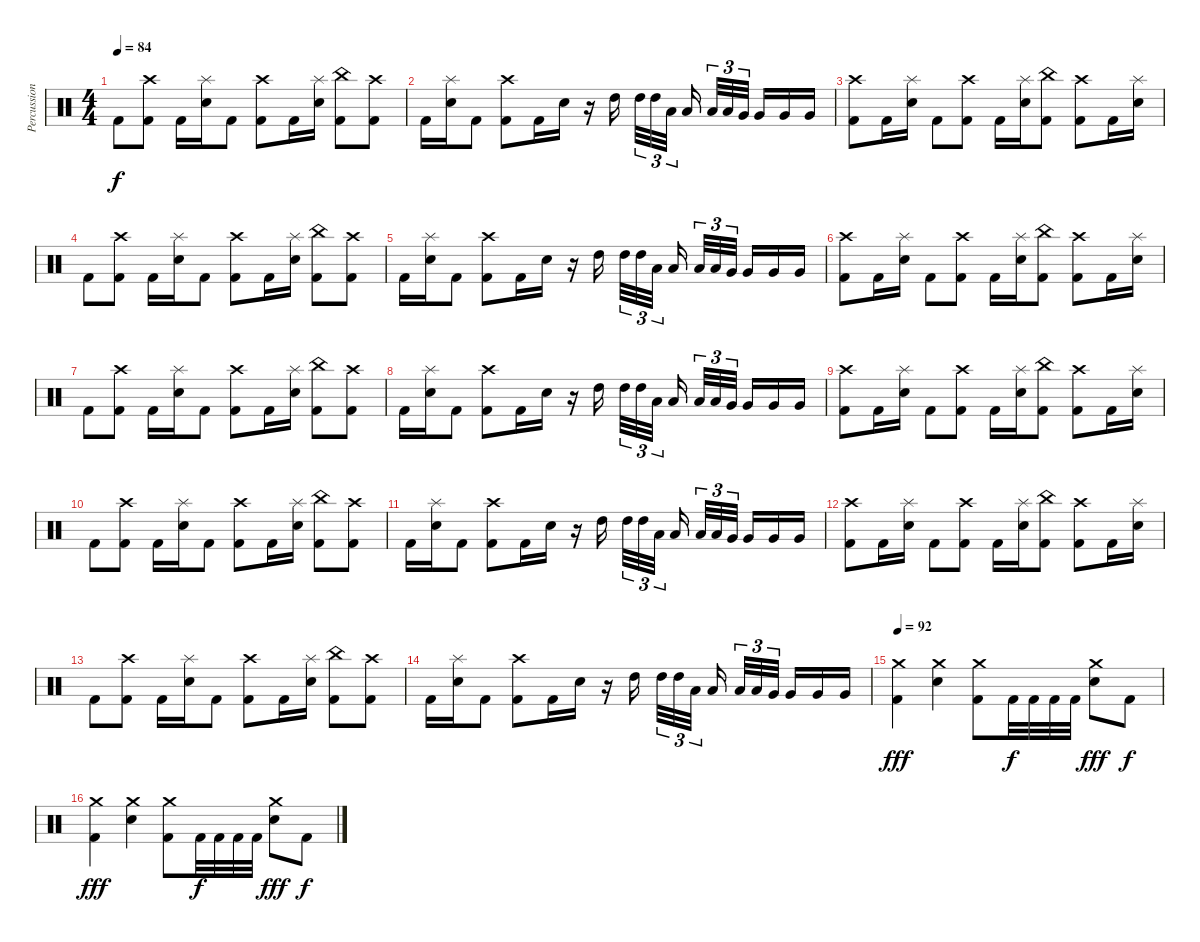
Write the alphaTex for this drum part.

\track ("Percussion" "Percussion") {instrument percussion}
\staff {score}
\articulation defaults
\ts (4 4)
\tempo 84
\clef neutral
\ks c "Kick (hit) 2".8{dy f}
("Crash high (hit)" "Kick (hit) 2").8 "Kick (hit) 2".16 ("Splash (hit)" "Electric Snare (hit)").16 "Kick (hit) 2".8 ("Crash high (hit)" "Kick (hit) 2").8 "Kick (hit) 2".16 ("Splash (hit)" "Electric Snare (hit)").16 ("China (hit)" "Kick (hit) 2").8 ("Crash high (hit)" "Kick (hit) 2").8 |
"Kick (hit) 2".16 ("Splash (hit)" "Electric Snare (hit)").16 "Kick (hit) 2".8 ("Crash high (hit)" "Kick (hit) 2").8 "Kick (hit) 2".16 "Electric Snare (hit)".16 r.16 "High Tom (hit)".16 "High Tom (hit)".32{tu (3 2)} "High Tom (hit)".32{tu (3 2)} "Low Tom (hit)".32{tu (3 2)} "Low Tom (hit)".16 "Low Tom (hit)".32{tu (3 2)} "Low Tom (hit)".32{tu (3 2)} "Very Low Tom (hit)".32{tu (3 2)} "Very Low Tom (hit)".16 "Very Low Tom (hit)".16 "Very Low Tom (hit)".16 |
("Crash high (hit)" "Kick (hit) 2").8 "Kick (hit) 2".16 ("Splash (hit)" "Electric Snare (hit)").16 "Kick (hit) 2".8 ("Crash high (hit)" "Kick (hit) 2").8 "Kick (hit) 2".16 ("Splash (hit)" "Electric Snare (hit)").16 ("China (hit)" "Kick (hit) 2").8 ("Crash high (hit)" "Kick (hit) 2").8 "Kick (hit) 2".16 ("Splash (hit)" "Electric Snare (hit)").16 |
"Kick (hit) 2".8 ("Crash high (hit)" "Kick (hit) 2").8 "Kick (hit) 2".16 ("Splash (hit)" "Electric Snare (hit)").16 "Kick (hit) 2".8 ("Crash high (hit)" "Kick (hit) 2").8 "Kick (hit) 2".16 ("Splash (hit)" "Electric Snare (hit)").16 ("China (hit)" "Kick (hit) 2").8 ("Crash high (hit)" "Kick (hit) 2").8 |
"Kick (hit) 2".16 ("Splash (hit)" "Electric Snare (hit)").16 "Kick (hit) 2".8 ("Crash high (hit)" "Kick (hit) 2").8 "Kick (hit) 2".16 "Electric Snare (hit)".16 r.16 "High Tom (hit)".16 "High Tom (hit)".32{tu (3 2)} "High Tom (hit)".32{tu (3 2)} "Low Tom (hit)".32{tu (3 2)} "Low Tom (hit)".16 "Low Tom (hit)".32{tu (3 2)} "Low Tom (hit)".32{tu (3 2)} "Very Low Tom (hit)".32{tu (3 2)} "Very Low Tom (hit)".16 "Very Low Tom (hit)".16 "Very Low Tom (hit)".16 |
("Crash high (hit)" "Kick (hit) 2").8 "Kick (hit) 2".16 ("Splash (hit)" "Electric Snare (hit)").16 "Kick (hit) 2".8 ("Crash high (hit)" "Kick (hit) 2").8 "Kick (hit) 2".16 ("Splash (hit)" "Electric Snare (hit)").16 ("China (hit)" "Kick (hit) 2").8 ("Crash high (hit)" "Kick (hit) 2").8 "Kick (hit) 2".16 ("Splash (hit)" "Electric Snare (hit)").16 |
"Kick (hit) 2".8 ("Crash high (hit)" "Kick (hit) 2").8 "Kick (hit) 2".16 ("Splash (hit)" "Electric Snare (hit)").16 "Kick (hit) 2".8 ("Crash high (hit)" "Kick (hit) 2").8 "Kick (hit) 2".16 ("Splash (hit)" "Electric Snare (hit)").16 ("China (hit)" "Kick (hit) 2").8 ("Crash high (hit)" "Kick (hit) 2").8 |
"Kick (hit) 2".16 ("Splash (hit)" "Electric Snare (hit)").16 "Kick (hit) 2".8 ("Crash high (hit)" "Kick (hit) 2").8 "Kick (hit) 2".16 "Electric Snare (hit)".16 r.16 "High Tom (hit)".16 "High Tom (hit)".32{tu (3 2)} "High Tom (hit)".32{tu (3 2)} "Low Tom (hit)".32{tu (3 2)} "Low Tom (hit)".16 "Low Tom (hit)".32{tu (3 2)} "Low Tom (hit)".32{tu (3 2)} "Very Low Tom (hit)".32{tu (3 2)} "Very Low Tom (hit)".16 "Very Low Tom (hit)".16 "Very Low Tom (hit)".16 |
("Crash high (hit)" "Kick (hit) 2").8 "Kick (hit) 2".16 ("Splash (hit)" "Electric Snare (hit)").16 "Kick (hit) 2".8 ("Crash high (hit)" "Kick (hit) 2").8 "Kick (hit) 2".16 ("Splash (hit)" "Electric Snare (hit)").16 ("China (hit)" "Kick (hit) 2").8 ("Crash high (hit)" "Kick (hit) 2").8 "Kick (hit) 2".16 ("Splash (hit)" "Electric Snare (hit)").16 |
"Kick (hit) 2".8 ("Crash high (hit)" "Kick (hit) 2").8 "Kick (hit) 2".16 ("Splash (hit)" "Electric Snare (hit)").16 "Kick (hit) 2".8 ("Crash high (hit)" "Kick (hit) 2").8 "Kick (hit) 2".16 ("Splash (hit)" "Electric Snare (hit)").16 ("China (hit)" "Kick (hit) 2").8 ("Crash high (hit)" "Kick (hit) 2").8 |
"Kick (hit) 2".16 ("Splash (hit)" "Electric Snare (hit)").16 "Kick (hit) 2".8 ("Crash high (hit)" "Kick (hit) 2").8 "Kick (hit) 2".16 "Electric Snare (hit)".16 r.16 "High Tom (hit)".16 "High Tom (hit)".32{tu (3 2)} "High Tom (hit)".32{tu (3 2)} "Low Tom (hit)".32{tu (3 2)} "Low Tom (hit)".16 "Low Tom (hit)".32{tu (3 2)} "Low Tom (hit)".32{tu (3 2)} "Very Low Tom (hit)".32{tu (3 2)} "Very Low Tom (hit)".16 "Very Low Tom (hit)".16 "Very Low Tom (hit)".16 |
("Crash high (hit)" "Kick (hit) 2").8 "Kick (hit) 2".16 ("Splash (hit)" "Electric Snare (hit)").16 "Kick (hit) 2".8 ("Crash high (hit)" "Kick (hit) 2").8 "Kick (hit) 2".16 ("Splash (hit)" "Electric Snare (hit)").16 ("China (hit)" "Kick (hit) 2").8 ("Crash high (hit)" "Kick (hit) 2").8 "Kick (hit) 2".16 ("Splash (hit)" "Electric Snare (hit)").16 |
"Kick (hit) 2".8 ("Crash high (hit)" "Kick (hit) 2").8 "Kick (hit) 2".16 ("Splash (hit)" "Electric Snare (hit)").16 "Kick (hit) 2".8 ("Crash high (hit)" "Kick (hit) 2").8 "Kick (hit) 2".16 ("Splash (hit)" "Electric Snare (hit)").16 ("China (hit)" "Kick (hit) 2").8 ("Crash high (hit)" "Kick (hit) 2").8 |
"Kick (hit) 2".16 ("Splash (hit)" "Electric Snare (hit)").16 "Kick (hit) 2".8 ("Crash high (hit)" "Kick (hit) 2").8 "Kick (hit) 2".16 "Electric Snare (hit)".16 r.16 "High Tom (hit)".16 "High Tom (hit)".32{tu (3 2)} "High Tom (hit)".32{tu (3 2)} "Low Tom (hit)".32{tu (3 2)} "Low Tom (hit)".16 "Low Tom (hit)".32{tu (3 2)} "Low Tom (hit)".32{tu (3 2)} "Very Low Tom (hit)".32{tu (3 2)} "Very Low Tom (hit)".16 "Very Low Tom (hit)".16 "Very Low Tom (hit)".16 |
\tempo 92
("Crash medium (hit)" "Kick (hit) 2").4{dy fff} ("Crash medium (hit)" "Electric Snare (hit)").4 ("Crash medium (hit)" "Kick (hit) 2").8 "Kick (hit) 2".32{dy f} "Kick (hit) 2".32 "Kick (hit) 2".32 "Kick (hit) 2".32 ("Crash medium (hit)" "Electric Snare (hit)").8{dy fff} "Kick (hit) 2".8{dy f} |
("Crash medium (hit)" "Kick (hit) 2").4{dy fff} ("Crash medium (hit)" "Electric Snare (hit)").4 ("Crash medium (hit)" "Kick (hit) 2").8 "Kick (hit) 2".32{dy f} "Kick (hit) 2".32 "Kick (hit) 2".32 "Kick (hit) 2".32 ("Crash medium (hit)" "Electric Snare (hit)").8{dy fff} "Kick (hit) 2".8{dy f}
